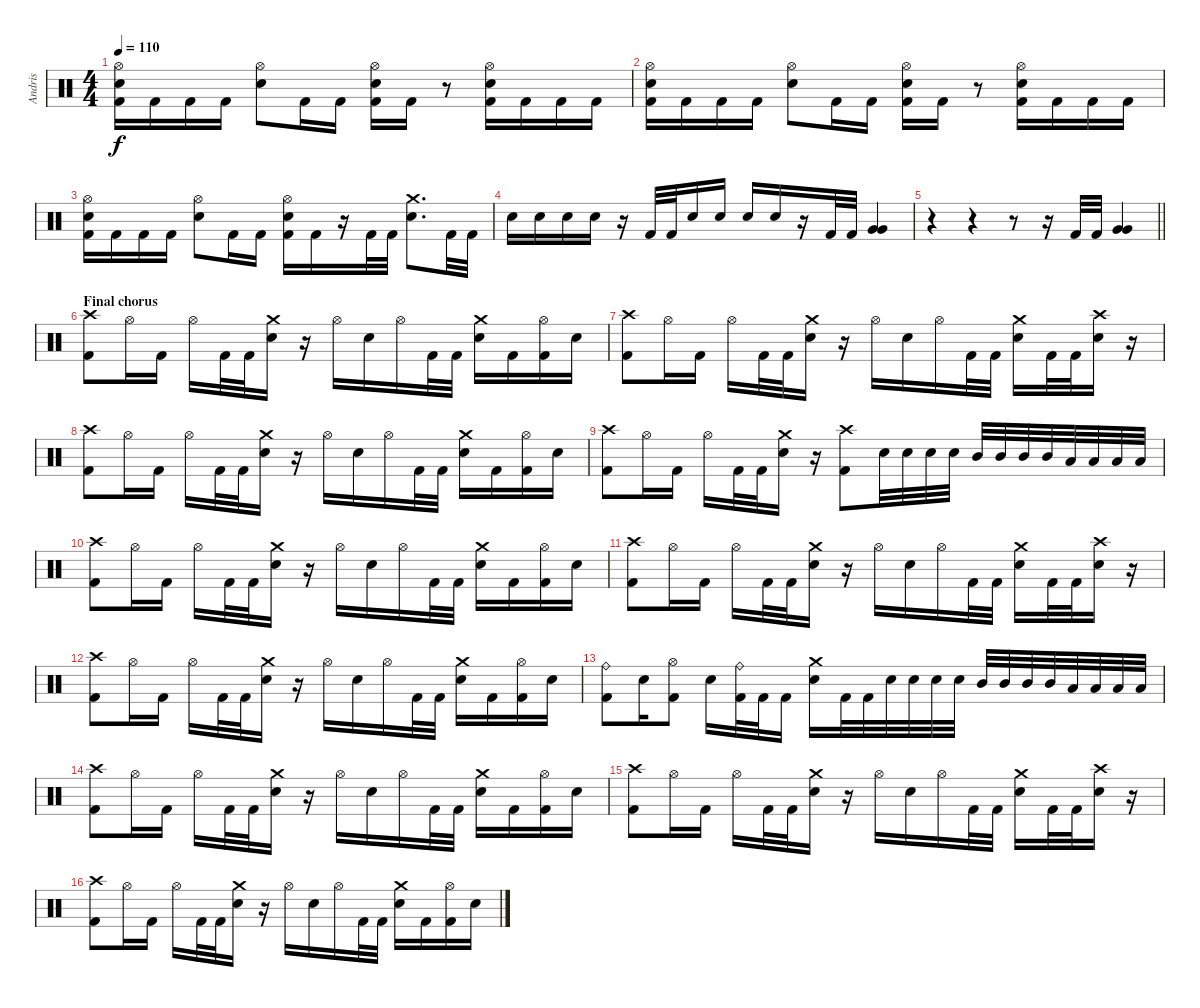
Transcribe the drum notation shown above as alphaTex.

\track ("Andris" "Andris") {instrument percussion}
\staff {score}
\articulation defaults
\ts (4 4)
\tempo 110
\clef neutral
\ks c
("Hi-Hat (open)" "Electric Snare (hit)" "Kick (hit) 2").16{dy f} "Kick (hit) 2".16 "Kick (hit) 2".16 "Kick (hit) 2".16 ("Hi-Hat (open)" "Electric Snare (hit)").8 "Kick (hit) 2".16 "Kick (hit) 2".16 ("Hi-Hat (open)" "Electric Snare (hit)" "Kick (hit) 2").16 "Kick (hit) 2".16 r.8 ("Hi-Hat (open)" "Electric Snare (hit)" "Kick (hit) 2").16 "Kick (hit) 2".16 "Kick (hit) 2".16 "Kick (hit) 2".16 |
("Hi-Hat (open)" "Electric Snare (hit)" "Kick (hit) 2").16 "Kick (hit) 2".16 "Kick (hit) 2".16 "Kick (hit) 2".16 ("Hi-Hat (open)" "Electric Snare (hit)").8 "Kick (hit) 2".16 "Kick (hit) 2".16 ("Hi-Hat (open)" "Electric Snare (hit)" "Kick (hit) 2").16 "Kick (hit) 2".16 r.8 ("Hi-Hat (open)" "Electric Snare (hit)" "Kick (hit) 2").16 "Kick (hit) 2".16 "Kick (hit) 2".16 "Kick (hit) 2".16 |
("Hi-Hat (open)" "Electric Snare (hit)" "Kick (hit) 2").16 "Kick (hit) 2".16 "Kick (hit) 2".16 "Kick (hit) 2".16 ("Hi-Hat (open)" "Electric Snare (hit)").8 "Kick (hit) 2".16 "Kick (hit) 2".16 ("Hi-Hat (open)" "Electric Snare (hit)" "Kick (hit) 2").16 "Kick (hit) 2".16 r.16 "Kick (hit) 2".32 "Kick (hit) 2".32 ("Crash medium (hit)" "Electric Snare (hit)").8{d} "Kick (hit) 2".32 "Kick (hit) 2".32 |
"Electric Snare (hit)".16 "Electric Snare (hit)".16 "Electric Snare (hit)".16 "Electric Snare (hit)".16 r.16 "Kick (hit) 2".32 "Kick (hit) 2".32 "Electric Snare (hit)".16 "Electric Snare (hit)".16 "Electric Snare (hit)".16 "Electric Snare (hit)".16 r.16 "Kick (hit) 2".32 "Kick (hit) 2".32 ("Very Low Tom (hit)" "Very Low Tom (hit)").4 |
\barLineRight lightlight
r.4 r.4 r.8 r.16 "Kick (hit) 2".32 "Kick (hit) 2".32 ("Very Low Tom (hit)" "Very Low Tom (hit)").4 |
\section ("" "Final chorus")
("Crash high (hit)" "Kick (hit) 2").8 "Hi-Hat (open)".16 "Kick (hit) 2".16 "Hi-Hat (open)".16 "Kick (hit) 2".32 "Kick (hit) 2".32 ("Crash medium (hit)" "Electric Snare (hit)").16 r.16 "Hi-Hat (open)".16 "Electric Snare (hit)".16 "Hi-Hat (open)".16 "Kick (hit) 2".32 "Kick (hit) 2".32 ("Crash medium (hit)" "Electric Snare (hit)").16 "Kick (hit) 2".16 ("Hi-Hat (open)" "Kick (hit) 2").16 "Electric Snare (hit)".16 |
("Crash high (hit)" "Kick (hit) 2").8 "Hi-Hat (open)".16 "Kick (hit) 2".16 "Hi-Hat (open)".16 "Kick (hit) 2".32 "Kick (hit) 2".32 ("Crash medium (hit)" "Electric Snare (hit)").16 r.16 "Hi-Hat (open)".16 "Electric Snare (hit)".16 "Hi-Hat (open)".16 "Kick (hit) 2".32 "Kick (hit) 2".32 ("Crash medium (hit)" "Electric Snare (hit)").16 "Kick (hit) 2".32 "Kick (hit) 2".32 ("Crash high (hit)" "Electric Snare (hit)").16 r.16 |
("Crash high (hit)" "Kick (hit) 2").8 "Hi-Hat (open)".16 "Kick (hit) 2".16 "Hi-Hat (open)".16 "Kick (hit) 2".32 "Kick (hit) 2".32 ("Crash medium (hit)" "Electric Snare (hit)").16 r.16 "Hi-Hat (open)".16 "Electric Snare (hit)".16 "Hi-Hat (open)".16 "Kick (hit) 2".32 "Kick (hit) 2".32 ("Crash medium (hit)" "Electric Snare (hit)").16 "Kick (hit) 2".16 ("Hi-Hat (open)" "Kick (hit) 2").16 "Electric Snare (hit)".16 |
("Crash high (hit)" "Kick (hit) 2").8 "Hi-Hat (open)".16 "Kick (hit) 2".16 "Hi-Hat (open)".16 "Kick (hit) 2".32 "Kick (hit) 2".32 ("Crash medium (hit)" "Electric Snare (hit)").16 r.16 ("Crash high (hit)" "Kick (hit) 2").8 "Electric Snare (hit)".32 "Electric Snare (hit)".32 "Electric Snare (hit)".32 "Electric Snare (hit)".32 "Mid Tom (hit)".32 "Mid Tom (hit)".32 "Mid Tom (hit)".32 "Mid Tom (hit)".32 "Low Tom (hit)".32 "Low Tom (hit)".32 "Low Tom (hit)".32 "Low Tom (hit)".32 |
("Crash high (hit)" "Kick (hit) 2").8 "Hi-Hat (open)".16 "Kick (hit) 2".16 "Hi-Hat (open)".16 "Kick (hit) 2".32 "Kick (hit) 2".32 ("Crash medium (hit)" "Electric Snare (hit)").16 r.16 "Hi-Hat (open)".16 "Electric Snare (hit)".16 "Hi-Hat (open)".16 "Kick (hit) 2".32 "Kick (hit) 2".32 ("Crash medium (hit)" "Electric Snare (hit)").16 "Kick (hit) 2".16 ("Hi-Hat (open)" "Kick (hit) 2").16 "Electric Snare (hit)".16 |
("Crash high (hit)" "Kick (hit) 2").8 "Hi-Hat (open)".16 "Kick (hit) 2".16 "Hi-Hat (open)".16 "Kick (hit) 2".32 "Kick (hit) 2".32 ("Crash medium (hit)" "Electric Snare (hit)").16 r.16 "Hi-Hat (open)".16 "Electric Snare (hit)".16 "Hi-Hat (open)".16 "Kick (hit) 2".32 "Kick (hit) 2".32 ("Crash medium (hit)" "Electric Snare (hit)").16 "Kick (hit) 2".32 "Kick (hit) 2".32 ("Crash high (hit)" "Electric Snare (hit)").16 r.16 |
("Crash high (hit)" "Kick (hit) 2").8 "Hi-Hat (open)".16 "Kick (hit) 2".16 "Hi-Hat (open)".16 "Kick (hit) 2".32 "Kick (hit) 2".32 ("Crash medium (hit)" "Electric Snare (hit)").16 r.16 "Hi-Hat (open)".16 "Electric Snare (hit)".16 "Hi-Hat (open)".16 "Kick (hit) 2".32 "Kick (hit) 2".32 ("Crash medium (hit)" "Electric Snare (hit)").16 "Kick (hit) 2".16 ("Hi-Hat (open)" "Kick (hit) 2").16 "Electric Snare (hit)".16 |
("Ride (bell)" "Kick (hit) 2").8 "Electric Snare (hit)".16 ("Hi-Hat (open)" "Kick (hit) 2").8 "Electric Snare (hit)".16 ("Ride (bell)" "Kick (hit) 2").32 "Kick (hit) 2".32 "Kick (hit) 2".16 ("Crash medium (hit)" "Electric Snare (hit)").16 "Kick (hit) 2".32 "Kick (hit) 2".32 "Electric Snare (hit)".32 "Electric Snare (hit)".32 "Electric Snare (hit)".32 "Electric Snare (hit)".32 "Mid Tom (hit)".32 "Mid Tom (hit)".32 "Mid Tom (hit)".32 "Mid Tom (hit)".32 "Low Tom (hit)".32 "Low Tom (hit)".32 "Low Tom (hit)".32 "Low Tom (hit)".32 |
("Crash high (hit)" "Kick (hit) 2").8 "Hi-Hat (open)".16 "Kick (hit) 2".16 "Hi-Hat (open)".16 "Kick (hit) 2".32 "Kick (hit) 2".32 ("Crash medium (hit)" "Electric Snare (hit)").16 r.16 "Hi-Hat (open)".16 "Electric Snare (hit)".16 "Hi-Hat (open)".16 "Kick (hit) 2".32 "Kick (hit) 2".32 ("Crash medium (hit)" "Electric Snare (hit)").16 "Kick (hit) 2".16 ("Hi-Hat (open)" "Kick (hit) 2").16 "Electric Snare (hit)".16 |
("Crash high (hit)" "Kick (hit) 2").8 "Hi-Hat (open)".16 "Kick (hit) 2".16 "Hi-Hat (open)".16 "Kick (hit) 2".32 "Kick (hit) 2".32 ("Crash medium (hit)" "Electric Snare (hit)").16 r.16 "Hi-Hat (open)".16 "Electric Snare (hit)".16 "Hi-Hat (open)".16 "Kick (hit) 2".32 "Kick (hit) 2".32 ("Crash medium (hit)" "Electric Snare (hit)").16 "Kick (hit) 2".32 "Kick (hit) 2".32 ("Crash high (hit)" "Electric Snare (hit)").16 r.16 |
("Crash high (hit)" "Kick (hit) 2").8 "Hi-Hat (open)".16 "Kick (hit) 2".16 "Hi-Hat (open)".16 "Kick (hit) 2".32 "Kick (hit) 2".32 ("Crash medium (hit)" "Electric Snare (hit)").16 r.16 "Hi-Hat (open)".16 "Electric Snare (hit)".16 "Hi-Hat (open)".16 "Kick (hit) 2".32 "Kick (hit) 2".32 ("Crash medium (hit)" "Electric Snare (hit)").16 "Kick (hit) 2".16 ("Hi-Hat (open)" "Kick (hit) 2").16 "Electric Snare (hit)".16
